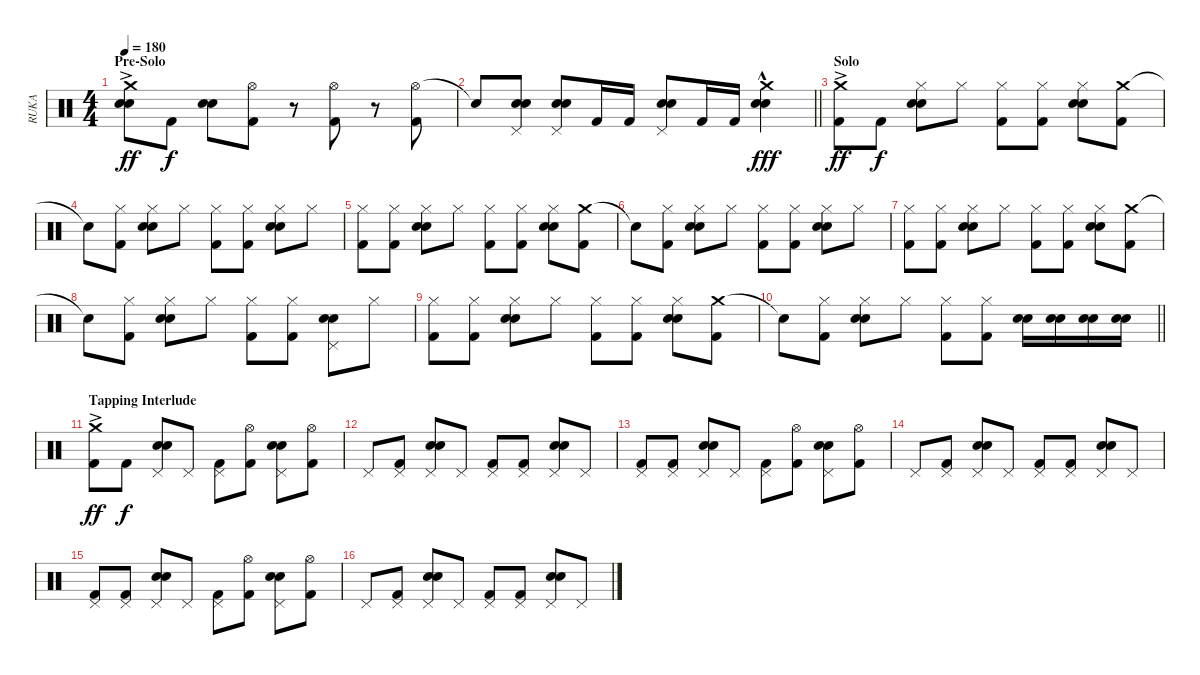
\track ("RUKA" "RUKA") {instrument percussion}
\staff {score}
\articulation defaults
\ts (4 4)
\section ("" "Pre-Solo")
\tempo 180
\clef neutral
\ks c
("Crash medium (hit)"{ac} "Snare (hit) 2" "Electric Snare (hit)").8{dy ff} "Kick (hit) 2".8{dy f} ("Snare (hit) 2" "Electric Snare (hit)").8 ("Hi-Hat (open)" "Kick (hit) 2").8 r.8 ("Hi-Hat (open)" "Kick (hit) 2").8 r.8 ("Hi-Hat (open)" "Kick (hit) 2").8 |
\barLineRight lightlight "Snare (hit)"{t}.8
("Pedal Hi-Hat (hit)" "Snare (hit) 2" "Electric Snare (hit)").8 ("Pedal Hi-Hat (hit)" "Snare (hit) 2" "Electric Snare (hit)").8 "Kick (hit) 2".16 "Kick (hit) 2".16 ("Pedal Hi-Hat (hit)" "Snare (hit) 2" "Electric Snare (hit)").8 "Kick (hit) 2".16 "Kick (hit) 2".16 ("Crash medium (hit)"{hac} "Snare (hit) 2" "Electric Snare (hit)").4{dy fff} |
\section ("" "Solo")
("Crash medium (hit)"{ac} "Kick (hit) 2").8{dy ff} "Kick (hit) 2".8{dy f} ("Hi-Hat (closed)" "Snare (hit) 2" "Electric Snare (hit)").8 "Hi-Hat (closed)".8 ("Hi-Hat (closed)" "Kick (hit) 2").8 ("Hi-Hat (closed)" "Kick (hit) 2").8 ("Hi-Hat (closed)" "Snare (hit) 2" "Electric Snare (hit)").8 ("Crash medium (hit)" "Kick (hit) 2").8 |
"Snare (hit)"{t}.8 ("Hi-Hat (closed)" "Kick (hit) 2").8 ("Hi-Hat (closed)" "Snare (hit) 2" "Electric Snare (hit)").8 "Hi-Hat (closed)".8 ("Hi-Hat (closed)" "Kick (hit) 2").8 ("Hi-Hat (closed)" "Kick (hit) 2").8 ("Hi-Hat (closed)" "Snare (hit) 2" "Electric Snare (hit)").8 "Hi-Hat (closed)".8 |
("Hi-Hat (closed)" "Kick (hit) 2").8 ("Hi-Hat (closed)" "Kick (hit) 2").8 ("Hi-Hat (closed)" "Snare (hit) 2" "Electric Snare (hit)").8 "Hi-Hat (closed)".8 ("Hi-Hat (closed)" "Kick (hit) 2").8 ("Hi-Hat (closed)" "Kick (hit) 2").8 ("Hi-Hat (closed)" "Snare (hit) 2" "Electric Snare (hit)").8 ("Crash medium (hit)" "Kick (hit) 2").8 |
"Snare (hit)"{t}.8 ("Hi-Hat (closed)" "Kick (hit) 2").8 ("Hi-Hat (closed)" "Snare (hit) 2" "Electric Snare (hit)").8 "Hi-Hat (closed)".8 ("Hi-Hat (closed)" "Kick (hit) 2").8 ("Hi-Hat (closed)" "Kick (hit) 2").8 ("Hi-Hat (closed)" "Snare (hit) 2" "Electric Snare (hit)").8 "Hi-Hat (closed)".8 |
("Hi-Hat (closed)" "Kick (hit) 2").8 ("Hi-Hat (closed)" "Kick (hit) 2").8 ("Hi-Hat (closed)" "Snare (hit) 2" "Electric Snare (hit)").8 "Hi-Hat (closed)".8 ("Hi-Hat (closed)" "Kick (hit) 2").8 ("Hi-Hat (closed)" "Kick (hit) 2").8 ("Hi-Hat (closed)" "Snare (hit) 2" "Electric Snare (hit)").8 ("Crash medium (hit)" "Kick (hit) 2").8 |
"Snare (hit)"{t}.8 ("Hi-Hat (closed)" "Kick (hit) 2").8 ("Hi-Hat (closed)" "Snare (hit) 2" "Electric Snare (hit)").8 "Hi-Hat (closed)".8 ("Hi-Hat (closed)" "Kick (hit) 2").8 ("Hi-Hat (closed)" "Kick (hit) 2").8 ("Pedal Hi-Hat (hit)" "Snare (hit) 2" "Electric Snare (hit)").8 "Hi-Hat (closed)".8 |
("Hi-Hat (closed)" "Kick (hit) 2").8 ("Hi-Hat (closed)" "Kick (hit) 2").8 ("Hi-Hat (closed)" "Snare (hit) 2" "Electric Snare (hit)").8 "Hi-Hat (closed)".8 ("Hi-Hat (closed)" "Kick (hit) 2").8 ("Hi-Hat (closed)" "Kick (hit) 2").8 ("Hi-Hat (closed)" "Snare (hit) 2" "Electric Snare (hit)").8 ("Crash medium (hit)" "Kick (hit) 2").8 |
\barLineRight lightlight "Snare (hit)"{t}.8
("Hi-Hat (closed)" "Kick (hit) 2").8 ("Hi-Hat (closed)" "Snare (hit) 2" "Electric Snare (hit)").8 "Hi-Hat (closed)".8 ("Hi-Hat (closed)" "Kick (hit) 2").8 ("Hi-Hat (closed)" "Kick (hit) 2").8 ("Snare (hit) 2" "Electric Snare (hit)").16 ("Snare (hit) 2" "Electric Snare (hit)").16 ("Snare (hit) 2" "Electric Snare (hit)").16 ("Snare (hit) 2" "Electric Snare (hit)").16 |
\section ("" "Tapping Interlude")
("Crash medium (hit)"{ac} "Kick (hit) 2").8{dy ff} "Kick (hit) 2".8{dy f} ("Pedal Hi-Hat (hit)" "Snare (hit) 2" "Electric Snare (hit)").8 "Pedal Hi-Hat (hit)".8 ("Pedal Hi-Hat (hit)" "Kick (hit) 2").8 ("Hi-Hat (open)" "Kick (hit) 2").8 ("Pedal Hi-Hat (hit)" "Snare (hit) 2" "Electric Snare (hit)").8 ("Hi-Hat (open)" "Kick (hit) 2").8 |
"Pedal Hi-Hat (hit)".8 ("Pedal Hi-Hat (hit)" "Kick (hit) 2").8 ("Pedal Hi-Hat (hit)" "Snare (hit) 2" "Electric Snare (hit)").8 "Pedal Hi-Hat (hit)".8 ("Pedal Hi-Hat (hit)" "Kick (hit) 2").8 ("Pedal Hi-Hat (hit)" "Kick (hit) 2").8 ("Pedal Hi-Hat (hit)" "Snare (hit) 2" "Electric Snare (hit)").8 "Pedal Hi-Hat (hit)".8 |
("Pedal Hi-Hat (hit)" "Kick (hit) 2").8 ("Pedal Hi-Hat (hit)" "Kick (hit) 2").8 ("Pedal Hi-Hat (hit)" "Snare (hit) 2" "Electric Snare (hit)").8 "Pedal Hi-Hat (hit)".8 ("Pedal Hi-Hat (hit)" "Kick (hit) 2").8 ("Hi-Hat (open)" "Kick (hit) 2").8 ("Pedal Hi-Hat (hit)" "Snare (hit) 2" "Electric Snare (hit)").8 ("Hi-Hat (open)" "Kick (hit) 2").8 |
"Pedal Hi-Hat (hit)".8 ("Pedal Hi-Hat (hit)" "Kick (hit) 2").8 ("Pedal Hi-Hat (hit)" "Snare (hit) 2" "Electric Snare (hit)").8 "Pedal Hi-Hat (hit)".8 ("Pedal Hi-Hat (hit)" "Kick (hit) 2").8 ("Pedal Hi-Hat (hit)" "Kick (hit) 2").8 ("Pedal Hi-Hat (hit)" "Snare (hit) 2" "Electric Snare (hit)").8 "Pedal Hi-Hat (hit)".8 |
("Pedal Hi-Hat (hit)" "Kick (hit) 2").8 ("Pedal Hi-Hat (hit)" "Kick (hit) 2").8 ("Pedal Hi-Hat (hit)" "Snare (hit) 2" "Electric Snare (hit)").8 "Pedal Hi-Hat (hit)".8 ("Pedal Hi-Hat (hit)" "Kick (hit) 2").8 ("Hi-Hat (open)" "Kick (hit) 2").8 ("Pedal Hi-Hat (hit)" "Snare (hit) 2" "Electric Snare (hit)").8 ("Hi-Hat (open)" "Kick (hit) 2").8 |
"Pedal Hi-Hat (hit)".8 ("Pedal Hi-Hat (hit)" "Kick (hit) 2").8 ("Pedal Hi-Hat (hit)" "Snare (hit) 2" "Electric Snare (hit)").8 "Pedal Hi-Hat (hit)".8 ("Pedal Hi-Hat (hit)" "Kick (hit) 2").8 ("Pedal Hi-Hat (hit)" "Kick (hit) 2").8 ("Pedal Hi-Hat (hit)" "Snare (hit) 2" "Electric Snare (hit)").8 "Pedal Hi-Hat (hit)".8
